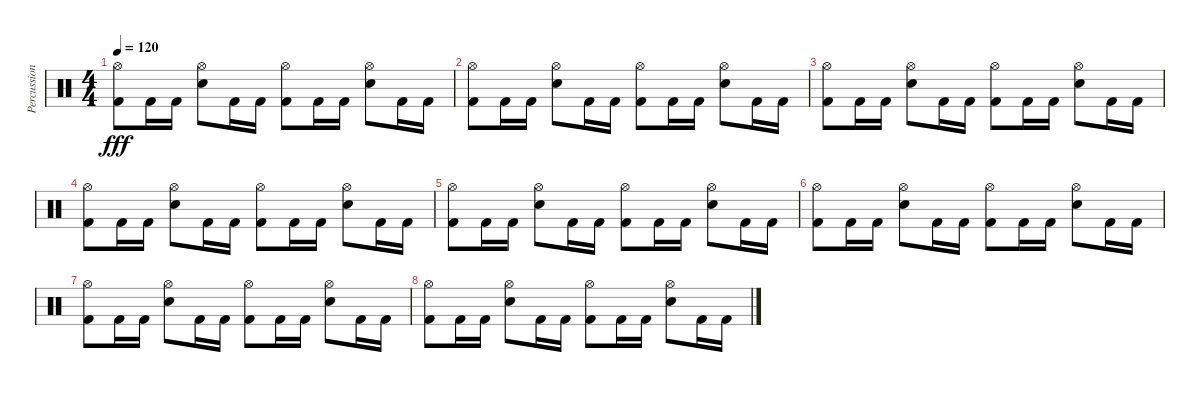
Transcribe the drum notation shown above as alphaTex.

\track ("Percussion" "Percussion") {instrument percussion}
\staff {score}
\articulation defaults
\ts (4 4)
\tempo 120
\clef neutral
\ks c
("Hi-Hat (open)" "Kick (hit) 2").8{dy fff} "Kick (hit) 2".16 "Kick (hit) 2".16 ("Hi-Hat (open)" "Electric Snare (hit)").8 "Kick (hit) 2".16 "Kick (hit) 2".16 ("Hi-Hat (open)" "Kick (hit) 2").8 "Kick (hit) 2".16 "Kick (hit) 2".16 ("Hi-Hat (open)" "Electric Snare (hit)").8 "Kick (hit) 2".16 "Kick (hit) 2".16 |
("Hi-Hat (open)" "Kick (hit) 2").8 "Kick (hit) 2".16 "Kick (hit) 2".16 ("Hi-Hat (open)" "Electric Snare (hit)").8 "Kick (hit) 2".16 "Kick (hit) 2".16 ("Hi-Hat (open)" "Kick (hit) 2").8 "Kick (hit) 2".16 "Kick (hit) 2".16 ("Hi-Hat (open)" "Electric Snare (hit)").8 "Kick (hit) 2".16 "Kick (hit) 2".16 |
("Hi-Hat (open)" "Kick (hit) 2").8 "Kick (hit) 2".16 "Kick (hit) 2".16 ("Hi-Hat (open)" "Electric Snare (hit)").8 "Kick (hit) 2".16 "Kick (hit) 2".16 ("Hi-Hat (open)" "Kick (hit) 2").8 "Kick (hit) 2".16 "Kick (hit) 2".16 ("Hi-Hat (open)" "Electric Snare (hit)").8 "Kick (hit) 2".16 "Kick (hit) 2".16 |
("Hi-Hat (open)" "Kick (hit) 2").8 "Kick (hit) 2".16 "Kick (hit) 2".16 ("Hi-Hat (open)" "Electric Snare (hit)").8 "Kick (hit) 2".16 "Kick (hit) 2".16 ("Hi-Hat (open)" "Kick (hit) 2").8 "Kick (hit) 2".16 "Kick (hit) 2".16 ("Hi-Hat (open)" "Electric Snare (hit)").8 "Kick (hit) 2".16 "Kick (hit) 2".16 |
("Hi-Hat (open)" "Kick (hit) 2").8 "Kick (hit) 2".16 "Kick (hit) 2".16 ("Hi-Hat (open)" "Electric Snare (hit)").8 "Kick (hit) 2".16 "Kick (hit) 2".16 ("Hi-Hat (open)" "Kick (hit) 2").8 "Kick (hit) 2".16 "Kick (hit) 2".16 ("Hi-Hat (open)" "Electric Snare (hit)").8 "Kick (hit) 2".16 "Kick (hit) 2".16 |
("Hi-Hat (open)" "Kick (hit) 2").8 "Kick (hit) 2".16 "Kick (hit) 2".16 ("Hi-Hat (open)" "Electric Snare (hit)").8 "Kick (hit) 2".16 "Kick (hit) 2".16 ("Hi-Hat (open)" "Kick (hit) 2").8 "Kick (hit) 2".16 "Kick (hit) 2".16 ("Hi-Hat (open)" "Electric Snare (hit)").8 "Kick (hit) 2".16 "Kick (hit) 2".16 |
("Hi-Hat (open)" "Kick (hit) 2").8 "Kick (hit) 2".16 "Kick (hit) 2".16 ("Hi-Hat (open)" "Electric Snare (hit)").8 "Kick (hit) 2".16 "Kick (hit) 2".16 ("Hi-Hat (open)" "Kick (hit) 2").8 "Kick (hit) 2".16 "Kick (hit) 2".16 ("Hi-Hat (open)" "Electric Snare (hit)").8 "Kick (hit) 2".16 "Kick (hit) 2".16 |
("Hi-Hat (open)" "Kick (hit) 2").8 "Kick (hit) 2".16 "Kick (hit) 2".16 ("Hi-Hat (open)" "Electric Snare (hit)").8 "Kick (hit) 2".16 "Kick (hit) 2".16 ("Hi-Hat (open)" "Kick (hit) 2").8 "Kick (hit) 2".16 "Kick (hit) 2".16 ("Hi-Hat (open)" "Electric Snare (hit)").8 "Kick (hit) 2".16 "Kick (hit) 2".16
